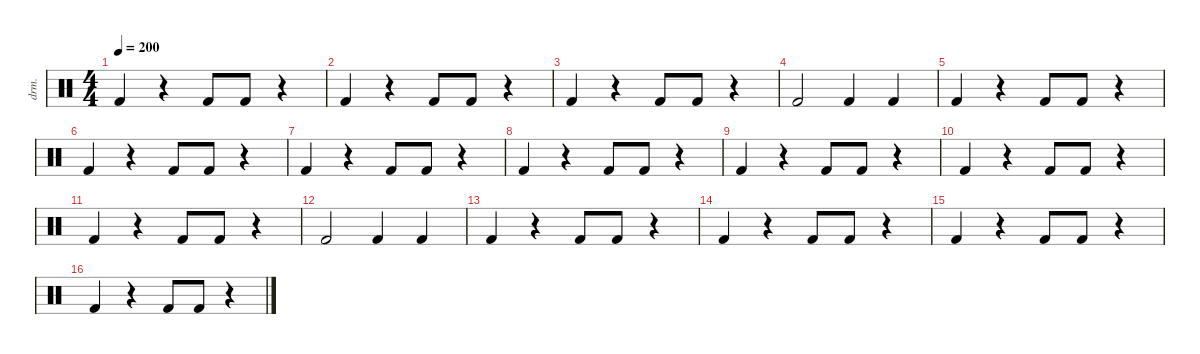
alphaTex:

\defaultSystemsLayout 4
\hideDynamics
\bracketExtendMode nobrackets
\track ("Percussion" "drm.") {instrument percussion}
\staff {score}
\articulation defaults
\ts (4 4)
\tempo 200
\clef neutral
\ks c "Kick (hit) 2".4{dy ff}
r.4 "Kick (hit) 2".8 "Kick (hit) 2".8 r.4 |
"Kick (hit) 2".4 r.4 "Kick (hit) 2".8 "Kick (hit) 2".8 r.4 |
"Kick (hit) 2".4 r.4 "Kick (hit) 2".8 "Kick (hit) 2".8 r.4 |
"Kick (hit) 2".2 "Kick (hit) 2".4 "Kick (hit) 2".4 |
"Kick (hit) 2".4 r.4 "Kick (hit) 2".8 "Kick (hit) 2".8 r.4 |
"Kick (hit) 2".4 r.4 "Kick (hit) 2".8 "Kick (hit) 2".8 r.4 |
"Kick (hit) 2".4 r.4 "Kick (hit) 2".8 "Kick (hit) 2".8 r.4 |
"Kick (hit) 2".4 r.4 "Kick (hit) 2".8 "Kick (hit) 2".8 r.4 |
"Kick (hit) 2".4 r.4 "Kick (hit) 2".8 "Kick (hit) 2".8 r.4 |
"Kick (hit) 2".4 r.4 "Kick (hit) 2".8 "Kick (hit) 2".8 r.4 |
"Kick (hit) 2".4 r.4 "Kick (hit) 2".8 "Kick (hit) 2".8 r.4 |
"Kick (hit) 2".2 "Kick (hit) 2".4 "Kick (hit) 2".4 |
"Kick (hit) 2".4 r.4 "Kick (hit) 2".8 "Kick (hit) 2".8 r.4 |
"Kick (hit) 2".4 r.4 "Kick (hit) 2".8 "Kick (hit) 2".8 r.4 |
"Kick (hit) 2".4 r.4 "Kick (hit) 2".8 "Kick (hit) 2".8 r.4 |
"Kick (hit) 2".4 r.4 "Kick (hit) 2".8 "Kick (hit) 2".8 r.4
